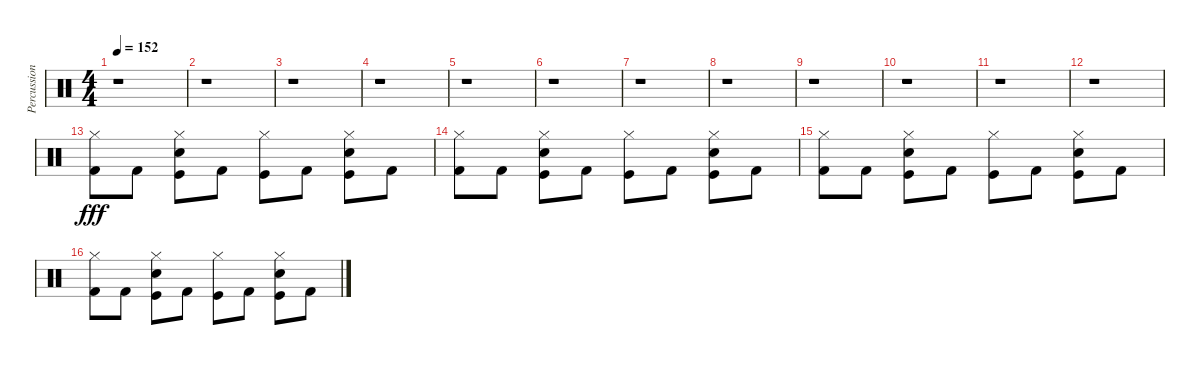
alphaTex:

\track ("Percussions" "Percussion") {instrument percussion}
\staff {score}
\articulation defaults
\ts (4 4)
\tempo 152
\clef neutral
\ks c
r.1{dy fff} |
r.1 |
r.1 |
r.1 |
r.1 |
r.1 |
r.1 |
r.1 |
r.1 |
r.1 |
r.1 |
r.1 |
("Hi-Hat (closed)" "Kick (hit) 2").8 "Kick (hit) 2".8 ("Hi-Hat (closed)" "Snare (hit) 2" "Kick (hit)").8 "Kick (hit) 2".8 ("Hi-Hat (closed)" "Kick (hit)").8 "Kick (hit) 2".8 ("Hi-Hat (closed)" "Snare (hit) 2" "Kick (hit)").8 "Kick (hit) 2".8 |
("Hi-Hat (closed)" "Kick (hit) 2").8 "Kick (hit) 2".8 ("Hi-Hat (closed)" "Snare (hit) 2" "Kick (hit)").8 "Kick (hit) 2".8 ("Hi-Hat (closed)" "Kick (hit)").8 "Kick (hit) 2".8 ("Hi-Hat (closed)" "Snare (hit) 2" "Kick (hit)").8 "Kick (hit) 2".8 |
("Hi-Hat (closed)" "Kick (hit) 2").8 "Kick (hit) 2".8 ("Hi-Hat (closed)" "Snare (hit) 2" "Kick (hit)").8 "Kick (hit) 2".8 ("Hi-Hat (closed)" "Kick (hit)").8 "Kick (hit) 2".8 ("Hi-Hat (closed)" "Snare (hit) 2" "Kick (hit)").8 "Kick (hit) 2".8 |
("Hi-Hat (closed)" "Kick (hit) 2").8 "Kick (hit) 2".8 ("Hi-Hat (closed)" "Snare (hit) 2" "Kick (hit)").8 "Kick (hit) 2".8 ("Hi-Hat (closed)" "Kick (hit)").8 "Kick (hit) 2".8 ("Hi-Hat (closed)" "Snare (hit) 2" "Kick (hit)").8 "Kick (hit) 2".8
